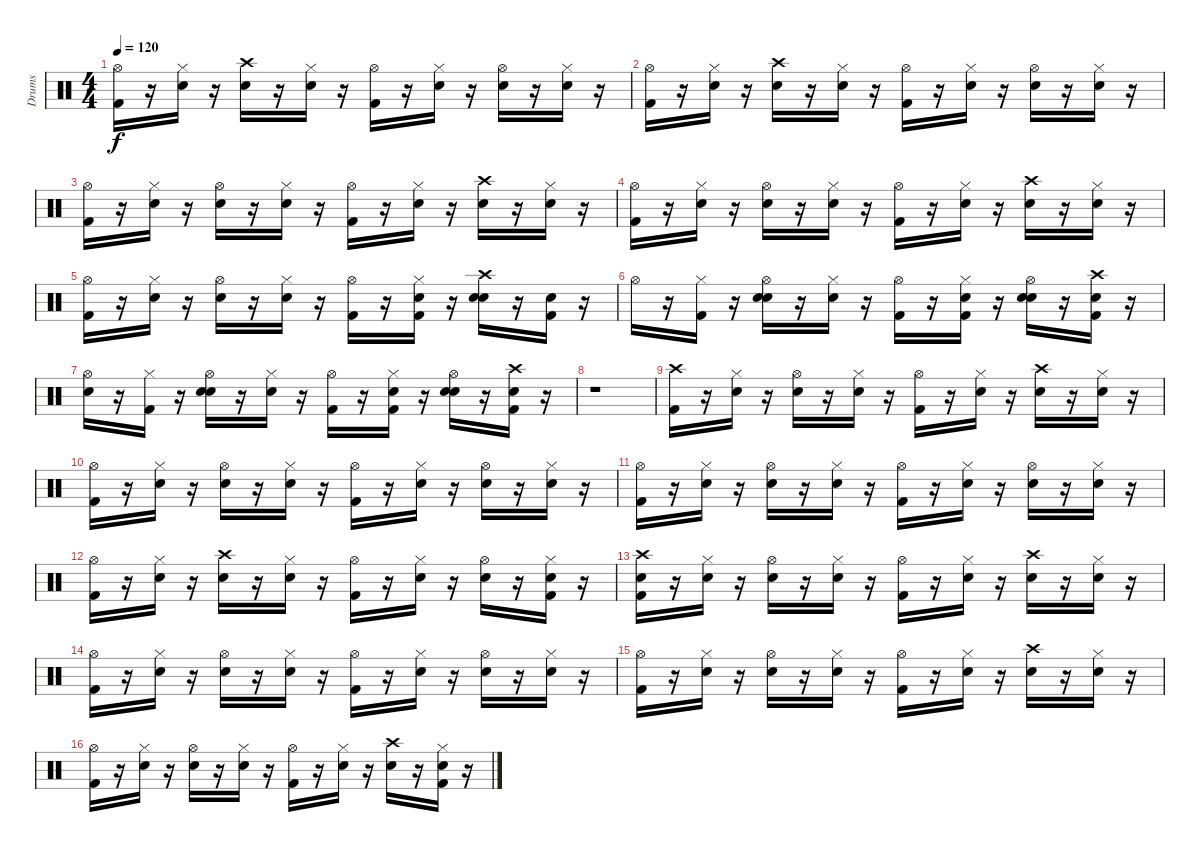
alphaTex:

\track ("Drums" "Drums") {instrument percussion}
\staff {score}
\articulation defaults
\ts (4 4)
\tempo 120
\clef neutral
\ks c
("Kick (hit) 2" "Hi-Hat (open)").16{dy f} r.16 ("Snare (hit)" "Hi-Hat (closed)").16 r.16 ("Electric Snare (hit)" "Crash high (hit)").16 r.16 ("Snare (hit)" "Hi-Hat (closed)").16 r.16 ("Kick (hit) 2" "Hi-Hat (open)").16 r.16 ("Snare (hit)" "Hi-Hat (closed)").16 r.16 ("Electric Snare (hit)" "Hi-Hat (open)").16 r.16 ("Snare (hit)" "Hi-Hat (closed)").16 r.16 |
("Kick (hit) 2" "Hi-Hat (open)").16 r.16 ("Snare (hit)" "Hi-Hat (closed)").16 r.16 ("Electric Snare (hit)" "Crash high (hit)").16 r.16 ("Snare (hit)" "Hi-Hat (closed)").16 r.16 ("Kick (hit) 2" "Hi-Hat (open)").16 r.16 ("Snare (hit)" "Hi-Hat (closed)").16 r.16 ("Electric Snare (hit)" "Hi-Hat (open)").16 r.16 ("Snare (hit)" "Hi-Hat (closed)").16 r.16 |
("Kick (hit) 2" "Hi-Hat (open)").16 r.16 ("Snare (hit)" "Hi-Hat (closed)").16 r.16 ("Electric Snare (hit)" "Hi-Hat (open)").16 r.16 ("Snare (hit)" "Hi-Hat (closed)").16 r.16 ("Kick (hit) 2" "Hi-Hat (open)").16 r.16 ("Snare (hit)" "Hi-Hat (closed)").16 r.16 ("Electric Snare (hit)" "Crash high (hit)").16 r.16 ("Snare (hit)" "Hi-Hat (closed)").16 r.16 |
("Kick (hit) 2" "Hi-Hat (open)").16 r.16 ("Snare (hit)" "Hi-Hat (closed)").16 r.16 ("Electric Snare (hit)" "Hi-Hat (open)").16 r.16 ("Snare (hit)" "Hi-Hat (closed)").16 r.16 ("Kick (hit) 2" "Hi-Hat (open)").16 r.16 ("Snare (hit)" "Hi-Hat (closed)").16 r.16 ("Electric Snare (hit)" "Crash high (hit)").16 r.16 ("Snare (hit)" "Hi-Hat (closed)").16 r.16 |
("Kick (hit) 2" "Hi-Hat (open)").16 r.16 ("Snare (hit)" "Hi-Hat (closed)").16 r.16 ("Electric Snare (hit)" "Hi-Hat (open)").16 r.16 ("Snare (hit)" "Hi-Hat (closed)").16 r.16 ("Kick (hit) 2" "Hi-Hat (open)").16 r.16 ("Snare (hit)" "Kick (hit) 2" "Hi-Hat (closed)").16 r.16 ("Snare (hit)" "Electric Snare (hit)" "Crash high (hit)").16 r.16 ("Snare (hit)" "Kick (hit) 2").16 r.16 |
"Hi-Hat (open)".16 r.16 ("Kick (hit) 2" "Hi-Hat (closed)").16 r.16 ("Snare (hit)" "Electric Snare (hit)" "Hi-Hat (open)").16 r.16 ("Snare (hit)" "Hi-Hat (closed)").16 r.16 ("Kick (hit) 2" "Hi-Hat (open)").16 r.16 ("Snare (hit)" "Kick (hit) 2" "Hi-Hat (closed)").16 r.16 ("Snare (hit)" "Electric Snare (hit)" "Hi-Hat (open)").16 r.16 ("Snare (hit)" "Kick (hit) 2" "Crash high (hit)").16 r.16 |
("Snare (hit)" "Hi-Hat (open)").16 r.16 ("Kick (hit) 2" "Hi-Hat (closed)").16 r.16 ("Snare (hit)" "Electric Snare (hit)" "Hi-Hat (open)").16 r.16 ("Snare (hit)" "Hi-Hat (closed)").16 r.16 ("Kick (hit) 2" "Hi-Hat (open)").16 r.16 ("Snare (hit)" "Kick (hit) 2" "Hi-Hat (closed)").16 r.16 ("Snare (hit)" "Electric Snare (hit)" "Hi-Hat (open)").16 r.16 ("Snare (hit)" "Kick (hit) 2" "Crash high (hit)").16 r.16 |
r.1 |
("Kick (hit) 2" "Crash high (hit)").16 r.16 ("Snare (hit)" "Hi-Hat (closed)").16 r.16 ("Electric Snare (hit)" "Hi-Hat (open)").16 r.16 ("Snare (hit)" "Hi-Hat (closed)").16 r.16 ("Kick (hit) 2" "Hi-Hat (open)").16 r.16 ("Snare (hit)" "Hi-Hat (closed)").16 r.16 ("Electric Snare (hit)" "Crash high (hit)").16 r.16 ("Snare (hit)" "Hi-Hat (closed)").16 r.16 |
("Kick (hit) 2" "Hi-Hat (open)").16 r.16 ("Snare (hit)" "Hi-Hat (closed)").16 r.16 ("Electric Snare (hit)" "Hi-Hat (open)").16 r.16 ("Snare (hit)" "Hi-Hat (closed)").16 r.16 ("Kick (hit) 2" "Hi-Hat (open)").16 r.16 ("Snare (hit)" "Hi-Hat (closed)").16 r.16 ("Electric Snare (hit)" "Hi-Hat (open)").16 r.16 ("Snare (hit)" "Hi-Hat (closed)").16 r.16 |
("Kick (hit) 2" "Hi-Hat (open)").16 r.16 ("Snare (hit)" "Hi-Hat (closed)").16 r.16 ("Electric Snare (hit)" "Hi-Hat (open)").16 r.16 ("Snare (hit)" "Hi-Hat (closed)").16 r.16 ("Kick (hit) 2" "Hi-Hat (open)").16 r.16 ("Snare (hit)" "Hi-Hat (closed)").16 r.16 ("Electric Snare (hit)" "Hi-Hat (open)").16 r.16 ("Snare (hit)" "Hi-Hat (closed)").16 r.16 |
("Kick (hit) 2" "Hi-Hat (open)").16 r.16 ("Snare (hit)" "Hi-Hat (closed)").16 r.16 ("Electric Snare (hit)" "Crash high (hit)").16 r.16 ("Snare (hit)" "Hi-Hat (closed)").16 r.16 ("Kick (hit) 2" "Hi-Hat (open)").16 r.16 ("Snare (hit)" "Hi-Hat (closed)").16 r.16 ("Electric Snare (hit)" "Hi-Hat (open)").16 r.16 ("Snare (hit)" "Kick (hit) 2" "Hi-Hat (closed)").16 r.16 |
("Snare (hit)" "Kick (hit) 2" "Crash high (hit)").16 r.16 ("Snare (hit)" "Hi-Hat (closed)").16 r.16 ("Electric Snare (hit)" "Hi-Hat (open)").16 r.16 ("Snare (hit)" "Hi-Hat (closed)").16 r.16 ("Kick (hit) 2" "Hi-Hat (open)").16 r.16 ("Snare (hit)" "Hi-Hat (closed)").16 r.16 ("Electric Snare (hit)" "Crash high (hit)").16 r.16 ("Snare (hit)" "Hi-Hat (closed)").16 r.16 |
("Kick (hit) 2" "Hi-Hat (open)").16 r.16 ("Snare (hit)" "Hi-Hat (closed)").16 r.16 ("Electric Snare (hit)" "Hi-Hat (open)").16 r.16 ("Snare (hit)" "Hi-Hat (closed)").16 r.16 ("Kick (hit) 2" "Hi-Hat (open)").16 r.16 ("Snare (hit)" "Hi-Hat (closed)").16 r.16 ("Electric Snare (hit)" "Hi-Hat (open)").16 r.16 ("Snare (hit)" "Hi-Hat (closed)").16 r.16 |
("Kick (hit) 2" "Hi-Hat (open)").16 r.16 ("Snare (hit)" "Hi-Hat (closed)").16 r.16 ("Electric Snare (hit)" "Hi-Hat (open)").16 r.16 ("Snare (hit)" "Hi-Hat (closed)").16 r.16 ("Kick (hit) 2" "Hi-Hat (open)").16 r.16 ("Snare (hit)" "Hi-Hat (closed)").16 r.16 ("Electric Snare (hit)" "Crash high (hit)").16 r.16 ("Snare (hit)" "Hi-Hat (closed)").16 r.16 |
("Kick (hit) 2" "Hi-Hat (open)").16 r.16 ("Snare (hit)" "Hi-Hat (closed)").16 r.16 ("Electric Snare (hit)" "Hi-Hat (open)").16 r.16 ("Snare (hit)" "Hi-Hat (closed)").16 r.16 ("Kick (hit) 2" "Hi-Hat (open)").16 r.16 ("Snare (hit)" "Hi-Hat (closed)").16 r.16 ("Electric Snare (hit)" "Crash high (hit)").16 r.16 ("Snare (hit)" "Kick (hit) 2" "Hi-Hat (closed)").16 r.16
